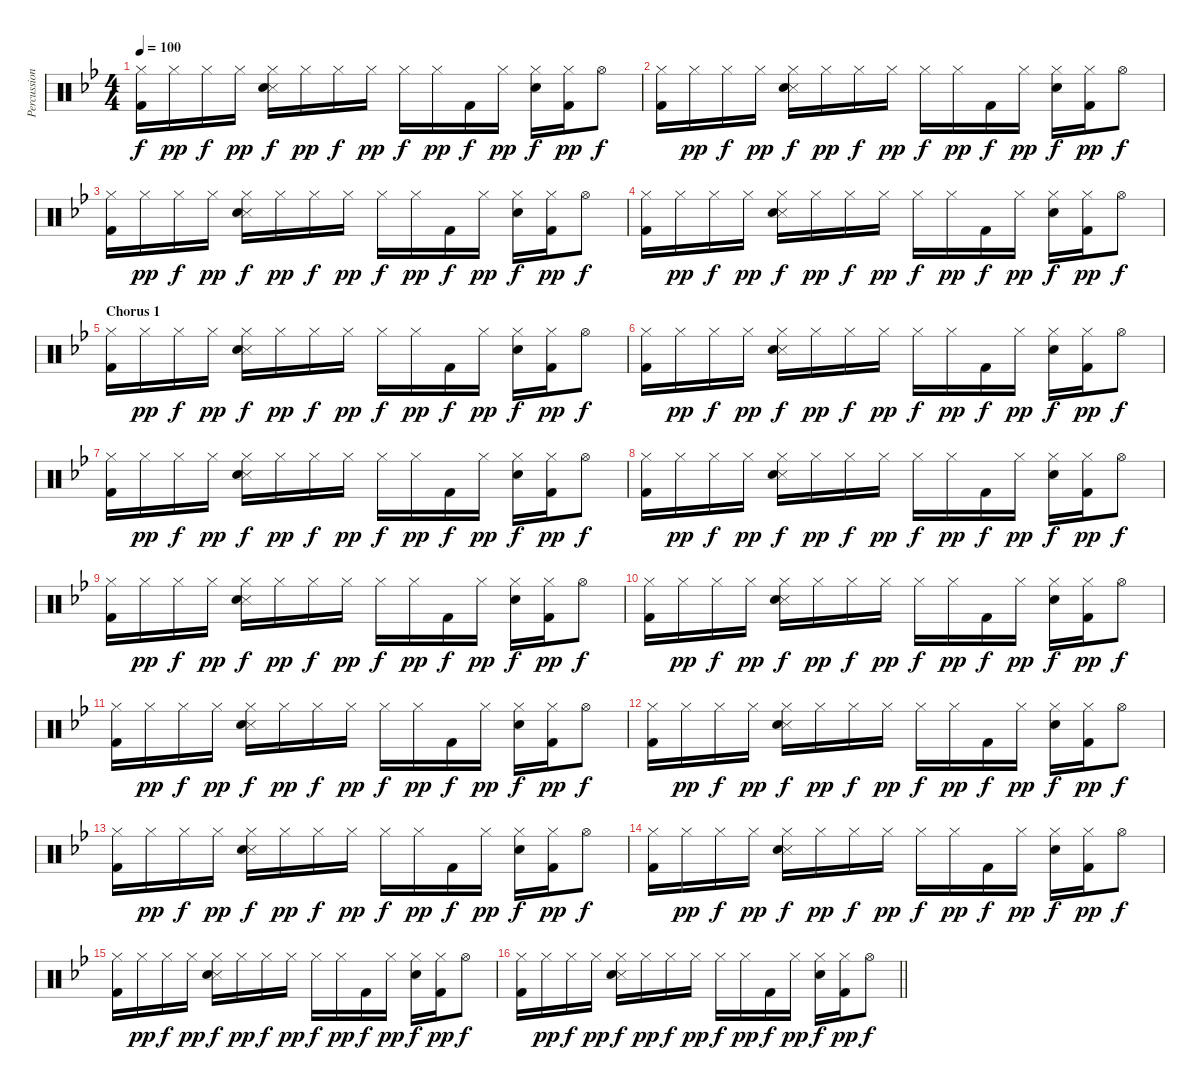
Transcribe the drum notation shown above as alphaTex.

\track ("Percussion" "Percussion") {instrument percussion}
\staff {score}
\articulation defaults
\ts (4 4)
\tempo 100
\clef neutral
\ks bb
("Hi-Hat (closed)" "Kick (hit) 2").16{dy f} "Hi-Hat (closed)".16{dy pp} "Hi-Hat (closed)".16{dy f} "Hi-Hat (closed)".16{dy pp} ("Hi-Hat (closed)" "Snare (side stick) 3" "Snare (hit) 2").16{dy f} "Hi-Hat (closed)".16{dy pp} "Hi-Hat (closed)".16{dy f} "Hi-Hat (closed)".16{dy pp} "Hi-Hat (closed)".16{dy f} "Hi-Hat (closed)".16{dy pp} "Kick (hit) 2".16{dy f} "Hi-Hat (closed)".16{dy pp} ("Hi-Hat (closed)" "Snare (hit) 2").16{dy f} ("Hi-Hat (closed)" "Kick (hit) 2").16{dy pp} "Hi-Hat (open)".8{dy f} |
("Hi-Hat (closed)" "Kick (hit) 2").16 "Hi-Hat (closed)".16{dy pp} "Hi-Hat (closed)".16{dy f} "Hi-Hat (closed)".16{dy pp} ("Hi-Hat (closed)" "Snare (side stick) 3" "Snare (hit) 2").16{dy f} "Hi-Hat (closed)".16{dy pp} "Hi-Hat (closed)".16{dy f} "Hi-Hat (closed)".16{dy pp} "Hi-Hat (closed)".16{dy f} "Hi-Hat (closed)".16{dy pp} "Kick (hit) 2".16{dy f} "Hi-Hat (closed)".16{dy pp} ("Hi-Hat (closed)" "Snare (hit) 2").16{dy f} ("Hi-Hat (closed)" "Kick (hit) 2").16{dy pp} "Hi-Hat (open)".8{dy f} |
("Hi-Hat (closed)" "Kick (hit) 2").16 "Hi-Hat (closed)".16{dy pp} "Hi-Hat (closed)".16{dy f} "Hi-Hat (closed)".16{dy pp} ("Hi-Hat (closed)" "Snare (side stick) 3" "Snare (hit) 2").16{dy f} "Hi-Hat (closed)".16{dy pp} "Hi-Hat (closed)".16{dy f} "Hi-Hat (closed)".16{dy pp} "Hi-Hat (closed)".16{dy f} "Hi-Hat (closed)".16{dy pp} "Kick (hit) 2".16{dy f} "Hi-Hat (closed)".16{dy pp} ("Hi-Hat (closed)" "Snare (hit) 2").16{dy f} ("Hi-Hat (closed)" "Kick (hit) 2").16{dy pp} "Hi-Hat (open)".8{dy f} |
("Hi-Hat (closed)" "Kick (hit) 2").16 "Hi-Hat (closed)".16{dy pp} "Hi-Hat (closed)".16{dy f} "Hi-Hat (closed)".16{dy pp} ("Hi-Hat (closed)" "Snare (side stick) 3" "Snare (hit) 2").16{dy f} "Hi-Hat (closed)".16{dy pp} "Hi-Hat (closed)".16{dy f} "Hi-Hat (closed)".16{dy pp} "Hi-Hat (closed)".16{dy f} "Hi-Hat (closed)".16{dy pp} "Kick (hit) 2".16{dy f} "Hi-Hat (closed)".16{dy pp} ("Hi-Hat (closed)" "Snare (hit) 2").16{dy f} ("Hi-Hat (closed)" "Kick (hit) 2").16{dy pp} "Hi-Hat (open)".8{dy f} |
\section ("" "Chorus 1")
("Hi-Hat (closed)" "Kick (hit) 2").16 "Hi-Hat (closed)".16{dy pp} "Hi-Hat (closed)".16{dy f} "Hi-Hat (closed)".16{dy pp} ("Hi-Hat (closed)" "Snare (side stick) 3" "Snare (hit) 2").16{dy f} "Hi-Hat (closed)".16{dy pp} "Hi-Hat (closed)".16{dy f} "Hi-Hat (closed)".16{dy pp} "Hi-Hat (closed)".16{dy f} "Hi-Hat (closed)".16{dy pp} "Kick (hit) 2".16{dy f} "Hi-Hat (closed)".16{dy pp} ("Hi-Hat (closed)" "Snare (hit) 2").16{dy f} ("Hi-Hat (closed)" "Kick (hit) 2").16{dy pp} "Hi-Hat (open)".8{dy f} |
("Hi-Hat (closed)" "Kick (hit) 2").16 "Hi-Hat (closed)".16{dy pp} "Hi-Hat (closed)".16{dy f} "Hi-Hat (closed)".16{dy pp} ("Hi-Hat (closed)" "Snare (side stick) 3" "Snare (hit) 2").16{dy f} "Hi-Hat (closed)".16{dy pp} "Hi-Hat (closed)".16{dy f} "Hi-Hat (closed)".16{dy pp} "Hi-Hat (closed)".16{dy f} "Hi-Hat (closed)".16{dy pp} "Kick (hit) 2".16{dy f} "Hi-Hat (closed)".16{dy pp} ("Hi-Hat (closed)" "Snare (hit) 2").16{dy f} ("Hi-Hat (closed)" "Kick (hit) 2").16{dy pp} "Hi-Hat (open)".8{dy f} |
("Hi-Hat (closed)" "Kick (hit) 2").16 "Hi-Hat (closed)".16{dy pp} "Hi-Hat (closed)".16{dy f} "Hi-Hat (closed)".16{dy pp} ("Hi-Hat (closed)" "Snare (side stick) 3" "Snare (hit) 2").16{dy f} "Hi-Hat (closed)".16{dy pp} "Hi-Hat (closed)".16{dy f} "Hi-Hat (closed)".16{dy pp} "Hi-Hat (closed)".16{dy f} "Hi-Hat (closed)".16{dy pp} "Kick (hit) 2".16{dy f} "Hi-Hat (closed)".16{dy pp} ("Hi-Hat (closed)" "Snare (hit) 2").16{dy f} ("Hi-Hat (closed)" "Kick (hit) 2").16{dy pp} "Hi-Hat (open)".8{dy f} |
("Hi-Hat (closed)" "Kick (hit) 2").16 "Hi-Hat (closed)".16{dy pp} "Hi-Hat (closed)".16{dy f} "Hi-Hat (closed)".16{dy pp} ("Hi-Hat (closed)" "Snare (side stick) 3" "Snare (hit) 2").16{dy f} "Hi-Hat (closed)".16{dy pp} "Hi-Hat (closed)".16{dy f} "Hi-Hat (closed)".16{dy pp} "Hi-Hat (closed)".16{dy f} "Hi-Hat (closed)".16{dy pp} "Kick (hit) 2".16{dy f} "Hi-Hat (closed)".16{dy pp} ("Hi-Hat (closed)" "Snare (hit) 2").16{dy f} ("Hi-Hat (closed)" "Kick (hit) 2").16{dy pp} "Hi-Hat (open)".8{dy f} |
("Hi-Hat (closed)" "Kick (hit) 2").16 "Hi-Hat (closed)".16{dy pp} "Hi-Hat (closed)".16{dy f} "Hi-Hat (closed)".16{dy pp} ("Hi-Hat (closed)" "Snare (side stick) 3" "Snare (hit) 2").16{dy f} "Hi-Hat (closed)".16{dy pp} "Hi-Hat (closed)".16{dy f} "Hi-Hat (closed)".16{dy pp} "Hi-Hat (closed)".16{dy f} "Hi-Hat (closed)".16{dy pp} "Kick (hit) 2".16{dy f} "Hi-Hat (closed)".16{dy pp} ("Hi-Hat (closed)" "Snare (hit) 2").16{dy f} ("Hi-Hat (closed)" "Kick (hit) 2").16{dy pp} "Hi-Hat (open)".8{dy f} |
("Hi-Hat (closed)" "Kick (hit) 2").16 "Hi-Hat (closed)".16{dy pp} "Hi-Hat (closed)".16{dy f} "Hi-Hat (closed)".16{dy pp} ("Hi-Hat (closed)" "Snare (side stick) 3" "Snare (hit) 2").16{dy f} "Hi-Hat (closed)".16{dy pp} "Hi-Hat (closed)".16{dy f} "Hi-Hat (closed)".16{dy pp} "Hi-Hat (closed)".16{dy f} "Hi-Hat (closed)".16{dy pp} "Kick (hit) 2".16{dy f} "Hi-Hat (closed)".16{dy pp} ("Hi-Hat (closed)" "Snare (hit) 2").16{dy f} ("Hi-Hat (closed)" "Kick (hit) 2").16{dy pp} "Hi-Hat (open)".8{dy f} |
("Hi-Hat (closed)" "Kick (hit) 2").16 "Hi-Hat (closed)".16{dy pp} "Hi-Hat (closed)".16{dy f} "Hi-Hat (closed)".16{dy pp} ("Hi-Hat (closed)" "Snare (side stick) 3" "Snare (hit) 2").16{dy f} "Hi-Hat (closed)".16{dy pp} "Hi-Hat (closed)".16{dy f} "Hi-Hat (closed)".16{dy pp} "Hi-Hat (closed)".16{dy f} "Hi-Hat (closed)".16{dy pp} "Kick (hit) 2".16{dy f} "Hi-Hat (closed)".16{dy pp} ("Hi-Hat (closed)" "Snare (hit) 2").16{dy f} ("Hi-Hat (closed)" "Kick (hit) 2").16{dy pp} "Hi-Hat (open)".8{dy f} |
("Hi-Hat (closed)" "Kick (hit) 2").16 "Hi-Hat (closed)".16{dy pp} "Hi-Hat (closed)".16{dy f} "Hi-Hat (closed)".16{dy pp} ("Hi-Hat (closed)" "Snare (side stick) 3" "Snare (hit) 2").16{dy f} "Hi-Hat (closed)".16{dy pp} "Hi-Hat (closed)".16{dy f} "Hi-Hat (closed)".16{dy pp} "Hi-Hat (closed)".16{dy f} "Hi-Hat (closed)".16{dy pp} "Kick (hit) 2".16{dy f} "Hi-Hat (closed)".16{dy pp} ("Hi-Hat (closed)" "Snare (hit) 2").16{dy f} ("Hi-Hat (closed)" "Kick (hit) 2").16{dy pp} "Hi-Hat (open)".8{dy f} |
("Hi-Hat (closed)" "Kick (hit) 2").16 "Hi-Hat (closed)".16{dy pp} "Hi-Hat (closed)".16{dy f} "Hi-Hat (closed)".16{dy pp} ("Hi-Hat (closed)" "Snare (side stick) 3" "Snare (hit) 2").16{dy f} "Hi-Hat (closed)".16{dy pp} "Hi-Hat (closed)".16{dy f} "Hi-Hat (closed)".16{dy pp} "Hi-Hat (closed)".16{dy f} "Hi-Hat (closed)".16{dy pp} "Kick (hit) 2".16{dy f} "Hi-Hat (closed)".16{dy pp} ("Hi-Hat (closed)" "Snare (hit) 2").16{dy f} ("Hi-Hat (closed)" "Kick (hit) 2").16{dy pp} "Hi-Hat (open)".8{dy f} |
("Hi-Hat (closed)" "Kick (hit) 2").16 "Hi-Hat (closed)".16{dy pp} "Hi-Hat (closed)".16{dy f} "Hi-Hat (closed)".16{dy pp} ("Hi-Hat (closed)" "Snare (side stick) 3" "Snare (hit) 2").16{dy f} "Hi-Hat (closed)".16{dy pp} "Hi-Hat (closed)".16{dy f} "Hi-Hat (closed)".16{dy pp} "Hi-Hat (closed)".16{dy f} "Hi-Hat (closed)".16{dy pp} "Kick (hit) 2".16{dy f} "Hi-Hat (closed)".16{dy pp} ("Hi-Hat (closed)" "Snare (hit) 2").16{dy f} ("Hi-Hat (closed)" "Kick (hit) 2").16{dy pp} "Hi-Hat (open)".8{dy f} |
("Hi-Hat (closed)" "Kick (hit) 2").16 "Hi-Hat (closed)".16{dy pp} "Hi-Hat (closed)".16{dy f} "Hi-Hat (closed)".16{dy pp} ("Hi-Hat (closed)" "Snare (side stick) 3" "Snare (hit) 2").16{dy f} "Hi-Hat (closed)".16{dy pp} "Hi-Hat (closed)".16{dy f} "Hi-Hat (closed)".16{dy pp} "Hi-Hat (closed)".16{dy f} "Hi-Hat (closed)".16{dy pp} "Kick (hit) 2".16{dy f} "Hi-Hat (closed)".16{dy pp} ("Hi-Hat (closed)" "Snare (hit) 2").16{dy f} ("Hi-Hat (closed)" "Kick (hit) 2").16{dy pp} "Hi-Hat (open)".8{dy f} |
\barLineRight lightlight
("Hi-Hat (closed)" "Kick (hit) 2").16 "Hi-Hat (closed)".16{dy pp} "Hi-Hat (closed)".16{dy f} "Hi-Hat (closed)".16{dy pp} ("Hi-Hat (closed)" "Snare (side stick) 3" "Snare (hit) 2").16{dy f} "Hi-Hat (closed)".16{dy pp} "Hi-Hat (closed)".16{dy f} "Hi-Hat (closed)".16{dy pp} "Hi-Hat (closed)".16{dy f} "Hi-Hat (closed)".16{dy pp} "Kick (hit) 2".16{dy f} "Hi-Hat (closed)".16{dy pp} ("Hi-Hat (closed)" "Snare (hit) 2").16{dy f} ("Hi-Hat (closed)" "Kick (hit) 2").16{dy pp} "Hi-Hat (open)".8{dy f}
